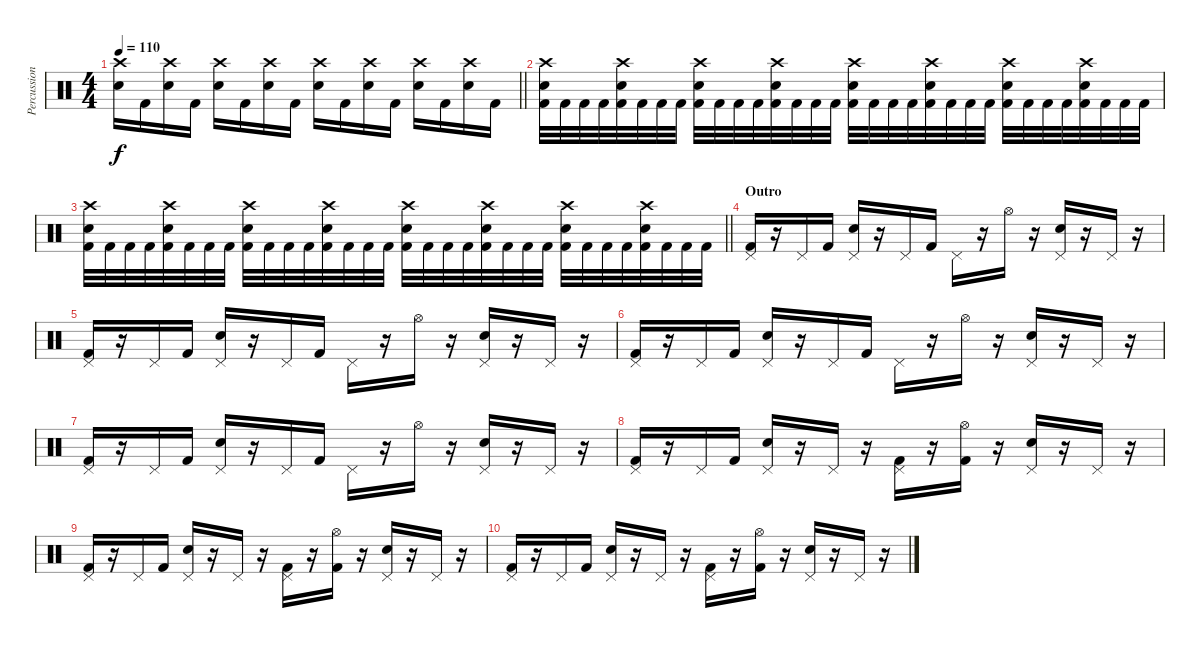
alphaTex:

\track ("Percussion" "Percussion") {instrument percussion}
\staff {score}
\articulation defaults
\ts (4 4)
\tempo 110
\clef neutral
\barLineRight lightlight
\ks c
("Crash high (hit)" "Snare (hit) 2").16{dy f} "Kick (hit) 2".16 ("Crash high (hit)" "Snare (hit) 2").16 "Kick (hit) 2".16 ("Crash high (hit)" "Snare (hit) 2").16 "Kick (hit) 2".16 ("Crash high (hit)" "Snare (hit) 2").16 "Kick (hit) 2".16 ("Crash high (hit)" "Snare (hit) 2").16 "Kick (hit) 2".16 ("Crash high (hit)" "Snare (hit) 2").16 "Kick (hit) 2".16 ("Crash high (hit)" "Snare (hit) 2").16 "Kick (hit) 2".16 ("Crash high (hit)" "Snare (hit) 2").16 "Kick (hit) 2".16 |
("Crash high (hit)" "Snare (hit) 2" "Kick (hit) 2").32 "Kick (hit) 2".32 "Kick (hit) 2".32 "Kick (hit) 2".32 ("Crash high (hit)" "Snare (hit) 2" "Kick (hit) 2").32 "Kick (hit) 2".32 "Kick (hit) 2".32 "Kick (hit) 2".32 ("Crash high (hit)" "Snare (hit) 2" "Kick (hit) 2").32 "Kick (hit) 2".32 "Kick (hit) 2".32 "Kick (hit) 2".32 ("Crash high (hit)" "Snare (hit) 2" "Kick (hit) 2").32 "Kick (hit) 2".32 "Kick (hit) 2".32 "Kick (hit) 2".32 ("Crash high (hit)" "Snare (hit) 2" "Kick (hit) 2").32 "Kick (hit) 2".32 "Kick (hit) 2".32 "Kick (hit) 2".32 ("Crash high (hit)" "Snare (hit) 2" "Kick (hit) 2").32 "Kick (hit) 2".32 "Kick (hit) 2".32 "Kick (hit) 2".32 ("Crash high (hit)" "Snare (hit) 2" "Kick (hit) 2").32 "Kick (hit) 2".32 "Kick (hit) 2".32 "Kick (hit) 2".32 ("Crash high (hit)" "Snare (hit) 2" "Kick (hit) 2").32 "Kick (hit) 2".32 "Kick (hit) 2".32 "Kick (hit) 2".32 |
\barLineRight lightlight
("Crash high (hit)" "Snare (hit) 2" "Kick (hit) 2").32 "Kick (hit) 2".32 "Kick (hit) 2".32 "Kick (hit) 2".32 ("Crash high (hit)" "Snare (hit) 2" "Kick (hit) 2").32 "Kick (hit) 2".32 "Kick (hit) 2".32 "Kick (hit) 2".32 ("Crash high (hit)" "Snare (hit) 2" "Kick (hit) 2").32 "Kick (hit) 2".32 "Kick (hit) 2".32 "Kick (hit) 2".32 ("Crash high (hit)" "Snare (hit) 2" "Kick (hit) 2").32 "Kick (hit) 2".32 "Kick (hit) 2".32 "Kick (hit) 2".32 ("Crash high (hit)" "Snare (hit) 2" "Kick (hit) 2").32 "Kick (hit) 2".32 "Kick (hit) 2".32 "Kick (hit) 2".32 ("Crash high (hit)" "Snare (hit) 2" "Kick (hit) 2").32 "Kick (hit) 2".32 "Kick (hit) 2".32 "Kick (hit) 2".32 ("Crash high (hit)" "Snare (hit) 2" "Kick (hit) 2").32 "Kick (hit) 2".32 "Kick (hit) 2".32 "Kick (hit) 2".32 ("Crash high (hit)" "Snare (hit) 2" "Kick (hit) 2").32 "Kick (hit) 2".32 "Kick (hit) 2".32 "Kick (hit) 2".32 |
\section ("" "Outro")
("Pedal Hi-Hat (hit)" "Kick (hit) 2").16 r.16 "Pedal Hi-Hat (hit)".16 "Kick (hit) 2".16 ("Pedal Hi-Hat (hit)" "Snare (hit) 2").16 r.16 "Pedal Hi-Hat (hit)".16 "Kick (hit) 2".16 "Pedal Hi-Hat (hit)".16 r.16 "Hi-Hat (open)".16 r.16 ("Pedal Hi-Hat (hit)" "Snare (hit) 2").16 r.16 "Pedal Hi-Hat (hit)".16 r.16 |
("Pedal Hi-Hat (hit)" "Kick (hit) 2").16 r.16 "Pedal Hi-Hat (hit)".16 "Kick (hit) 2".16 ("Pedal Hi-Hat (hit)" "Snare (hit) 2").16 r.16 "Pedal Hi-Hat (hit)".16 "Kick (hit) 2".16 "Pedal Hi-Hat (hit)".16 r.16 "Hi-Hat (open)".16 r.16 ("Pedal Hi-Hat (hit)" "Snare (hit) 2").16 r.16 "Pedal Hi-Hat (hit)".16 r.16 |
("Pedal Hi-Hat (hit)" "Kick (hit) 2").16 r.16 "Pedal Hi-Hat (hit)".16 "Kick (hit) 2".16 ("Pedal Hi-Hat (hit)" "Snare (hit) 2").16 r.16 "Pedal Hi-Hat (hit)".16 "Kick (hit) 2".16 "Pedal Hi-Hat (hit)".16 r.16 "Hi-Hat (open)".16 r.16 ("Pedal Hi-Hat (hit)" "Snare (hit) 2").16 r.16 "Pedal Hi-Hat (hit)".16 r.16 |
("Pedal Hi-Hat (hit)" "Kick (hit) 2").16 r.16 "Pedal Hi-Hat (hit)".16 "Kick (hit) 2".16 ("Pedal Hi-Hat (hit)" "Snare (hit) 2").16 r.16 "Pedal Hi-Hat (hit)".16 "Kick (hit) 2".16 "Pedal Hi-Hat (hit)".16 r.16 "Hi-Hat (open)".16 r.16 ("Pedal Hi-Hat (hit)" "Snare (hit) 2").16 r.16 "Pedal Hi-Hat (hit)".16 r.16 |
("Pedal Hi-Hat (hit)" "Kick (hit) 2").16 r.16 "Pedal Hi-Hat (hit)".16 "Kick (hit) 2".16 ("Pedal Hi-Hat (hit)" "Snare (hit) 2").16 r.16 "Pedal Hi-Hat (hit)".16 r.16 ("Pedal Hi-Hat (hit)" "Kick (hit) 2").16 r.16 ("Hi-Hat (open)" "Kick (hit) 2").16 r.16 ("Pedal Hi-Hat (hit)" "Snare (hit) 2").16 r.16 "Pedal Hi-Hat (hit)".16 r.16 |
("Pedal Hi-Hat (hit)" "Kick (hit) 2").16 r.16 "Pedal Hi-Hat (hit)".16 "Kick (hit) 2".16 ("Pedal Hi-Hat (hit)" "Snare (hit) 2").16 r.16 "Pedal Hi-Hat (hit)".16 r.16 ("Pedal Hi-Hat (hit)" "Kick (hit) 2").16 r.16 ("Hi-Hat (open)" "Kick (hit) 2").16 r.16 ("Pedal Hi-Hat (hit)" "Snare (hit) 2").16 r.16 "Pedal Hi-Hat (hit)".16 r.16 |
("Pedal Hi-Hat (hit)" "Kick (hit) 2").16 r.16 "Pedal Hi-Hat (hit)".16 "Kick (hit) 2".16 ("Pedal Hi-Hat (hit)" "Snare (hit) 2").16 r.16 "Pedal Hi-Hat (hit)".16 r.16 ("Pedal Hi-Hat (hit)" "Kick (hit) 2").16 r.16 ("Hi-Hat (open)" "Kick (hit) 2").16 r.16 ("Pedal Hi-Hat (hit)" "Snare (hit) 2").16 r.16 "Pedal Hi-Hat (hit)".16 r.16
